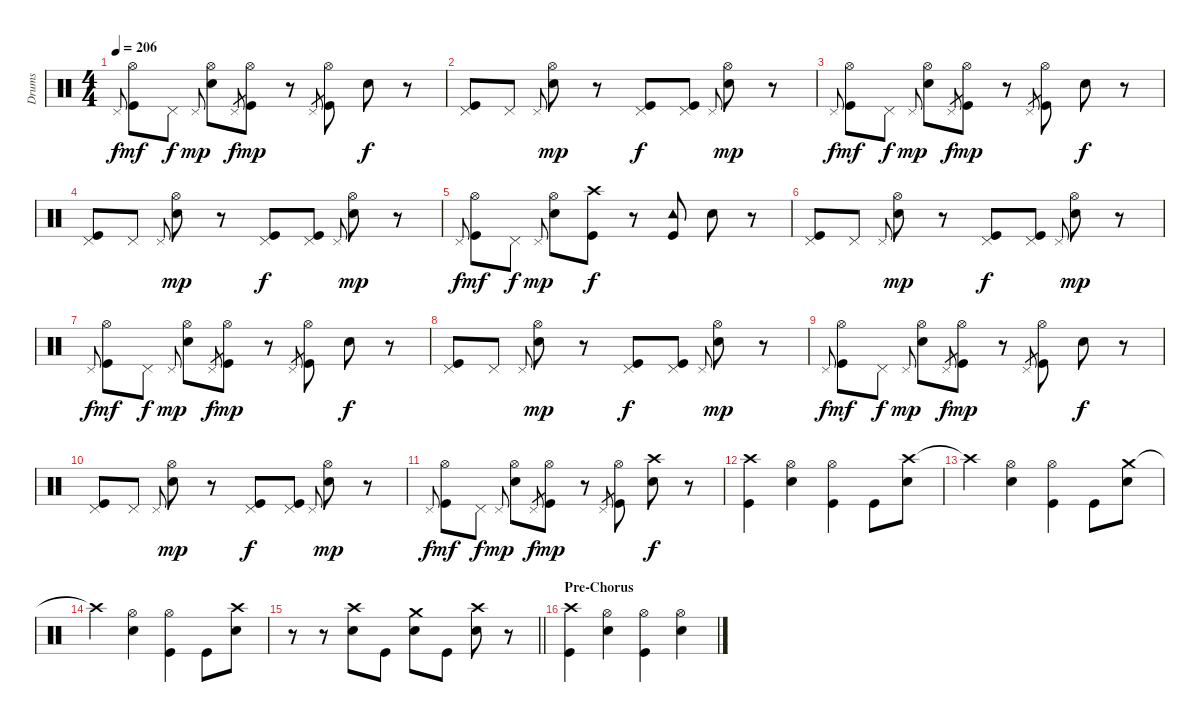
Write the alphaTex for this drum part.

\track ("Drums" "Drums") {instrument percussion}
\staff {score}
\articulation defaults
\ts (4 4)
\tempo 206
\clef neutral
\ks c "Pedal Hi-Hat (hit)".8{gr onbeat dy f}
("Hi-Hat (open)" "Kick (hit)").8{dy mf} "Pedal Hi-Hat (hit)".8{dy f} "Pedal Hi-Hat (hit)".8{gr onbeat dy mp} ("Hi-Hat (open)" "Electric Snare (hit)").8 "Pedal Hi-Hat (hit)".8{gr dy f} ("Hi-Hat (open)" "Kick (hit)").8{dy mp} r.8 "Pedal Hi-Hat (hit)".8{gr} ("Hi-Hat (open)" "Kick (hit)").8 "Electric Snare (hit)".8{dy f} r.8 |
("Pedal Hi-Hat (hit)" "Kick (hit)").8 "Pedal Hi-Hat (hit)".8 "Pedal Hi-Hat (hit)".8{gr onbeat} ("Hi-Hat (open)" "Electric Snare (hit)").8{dy mp} r.8 ("Pedal Hi-Hat (hit)" "Kick (hit)").8{dy f} ("Pedal Hi-Hat (hit)" "Kick (hit)").8 "Pedal Hi-Hat (hit)".8{gr onbeat} ("Hi-Hat (open)" "Electric Snare (hit)").8{dy mp} r.8 |
"Pedal Hi-Hat (hit)".8{gr onbeat dy f} ("Hi-Hat (open)" "Kick (hit)").8{dy mf} "Pedal Hi-Hat (hit)".8{dy f} "Pedal Hi-Hat (hit)".8{gr onbeat dy mp} ("Hi-Hat (open)" "Electric Snare (hit)").8 "Pedal Hi-Hat (hit)".8{gr dy f} ("Hi-Hat (open)" "Kick (hit)").8{dy mp} r.8 "Pedal Hi-Hat (hit)".8{gr} ("Hi-Hat (open)" "Kick (hit)").8 "Electric Snare (hit)".8{dy f} r.8 |
("Pedal Hi-Hat (hit)" "Kick (hit)").8 "Pedal Hi-Hat (hit)".8 "Pedal Hi-Hat (hit)".8{gr onbeat} ("Hi-Hat (open)" "Electric Snare (hit)").8{dy mp} r.8 ("Pedal Hi-Hat (hit)" "Kick (hit)").8{dy f} ("Pedal Hi-Hat (hit)" "Kick (hit)").8 "Pedal Hi-Hat (hit)".8{gr onbeat} ("Hi-Hat (open)" "Electric Snare (hit)").8{dy mp} r.8 |
"Pedal Hi-Hat (hit)".8{gr onbeat dy f} ("Hi-Hat (open)" "Kick (hit)").8{dy mf} "Pedal Hi-Hat (hit)".8{dy f} "Pedal Hi-Hat (hit)".8{gr onbeat dy mp} ("Hi-Hat (open)" "Electric Snare (hit)").8 ("Crash high (hit)" "Kick (hit)").8{dy f} r.8 ("Tambourine (hit)" "Kick (hit)").8 "Electric Snare (hit)".8 r.8 |
("Pedal Hi-Hat (hit)" "Kick (hit)").8 "Pedal Hi-Hat (hit)".8 "Pedal Hi-Hat (hit)".8{gr onbeat} ("Hi-Hat (open)" "Electric Snare (hit)").8{dy mp} r.8 ("Pedal Hi-Hat (hit)" "Kick (hit)").8{dy f} ("Pedal Hi-Hat (hit)" "Kick (hit)").8 "Pedal Hi-Hat (hit)".8{gr onbeat} ("Hi-Hat (open)" "Electric Snare (hit)").8{dy mp} r.8 |
"Pedal Hi-Hat (hit)".8{gr onbeat dy f} ("Hi-Hat (open)" "Kick (hit)").8{dy mf} "Pedal Hi-Hat (hit)".8{dy f} "Pedal Hi-Hat (hit)".8{gr onbeat dy mp} ("Hi-Hat (open)" "Electric Snare (hit)").8 "Pedal Hi-Hat (hit)".8{gr dy f} ("Hi-Hat (open)" "Kick (hit)").8{dy mp} r.8 "Pedal Hi-Hat (hit)".8{gr} ("Hi-Hat (open)" "Kick (hit)").8 "Electric Snare (hit)".8{dy f} r.8 |
("Pedal Hi-Hat (hit)" "Kick (hit)").8 "Pedal Hi-Hat (hit)".8 "Pedal Hi-Hat (hit)".8{gr onbeat} ("Hi-Hat (open)" "Electric Snare (hit)").8{dy mp} r.8 ("Pedal Hi-Hat (hit)" "Kick (hit)").8{dy f} ("Pedal Hi-Hat (hit)" "Kick (hit)").8 "Pedal Hi-Hat (hit)".8{gr onbeat} ("Hi-Hat (open)" "Electric Snare (hit)").8{dy mp} r.8 |
"Pedal Hi-Hat (hit)".8{gr onbeat dy f} ("Hi-Hat (open)" "Kick (hit)").8{dy mf} "Pedal Hi-Hat (hit)".8{dy f} "Pedal Hi-Hat (hit)".8{gr onbeat dy mp} ("Hi-Hat (open)" "Electric Snare (hit)").8 "Pedal Hi-Hat (hit)".8{gr dy f} ("Hi-Hat (open)" "Kick (hit)").8{dy mp} r.8 "Pedal Hi-Hat (hit)".8{gr} ("Hi-Hat (open)" "Kick (hit)").8 "Electric Snare (hit)".8{dy f} r.8 |
("Pedal Hi-Hat (hit)" "Kick (hit)").8 "Pedal Hi-Hat (hit)".8 "Pedal Hi-Hat (hit)".8{gr onbeat} ("Hi-Hat (open)" "Electric Snare (hit)").8{dy mp} r.8 ("Pedal Hi-Hat (hit)" "Kick (hit)").8{dy f} ("Pedal Hi-Hat (hit)" "Kick (hit)").8 "Pedal Hi-Hat (hit)".8{gr onbeat} ("Hi-Hat (open)" "Electric Snare (hit)").8{dy mp} r.8 |
"Pedal Hi-Hat (hit)".8{gr onbeat dy f} ("Hi-Hat (open)" "Kick (hit)").8{dy mf} "Pedal Hi-Hat (hit)".8{dy f} "Pedal Hi-Hat (hit)".8{gr onbeat dy mp} ("Hi-Hat (open)" "Electric Snare (hit)").8 "Pedal Hi-Hat (hit)".8{gr dy f} ("Hi-Hat (open)" "Kick (hit)").8{dy mp} r.8 "Pedal Hi-Hat (hit)".8{gr} ("Hi-Hat (open)" "Kick (hit)").8 ("Crash high (hit)" "Electric Snare (hit)").8{dy f} r.8 |
("Crash high (hit)" "Kick (hit)").4 ("Hi-Hat (open)" "Electric Snare (hit)").4 ("Hi-Hat (open)" "Kick (hit)").4 "Kick (hit)".8 ("Crash high (hit)" "Electric Snare (hit)").8 |
"Crash high (hit)"{t}.4 ("Hi-Hat (open)" "Electric Snare (hit)").4 ("Hi-Hat (open)" "Kick (hit)").4 "Kick (hit)".8 ("Crash medium (hit)" "Electric Snare (hit)").8 |
"Crash high (hit)"{t}.4 ("Hi-Hat (open)" "Electric Snare (hit)").4 ("Hi-Hat (open)" "Kick (hit)").4 "Kick (hit)".8 ("Crash high (hit)" "Electric Snare (hit)").8 |
\barLineRight lightlight
r.8 r.8 ("Crash high (hit)" "Electric Snare (hit)").8 "Kick (hit)".8 ("Crash medium (hit)" "Electric Snare (hit)").8 "Kick (hit)".8 ("Crash high (hit)" "Electric Snare (hit)").8 r.8 |
\section ("" "Pre-Chorus")
("Crash high (hit)" "Kick (hit)").4 ("Hi-Hat (open)" "Electric Snare (hit)").4 ("Hi-Hat (open)" "Kick (hit)").4 ("Hi-Hat (open)" "Electric Snare (hit)").4
